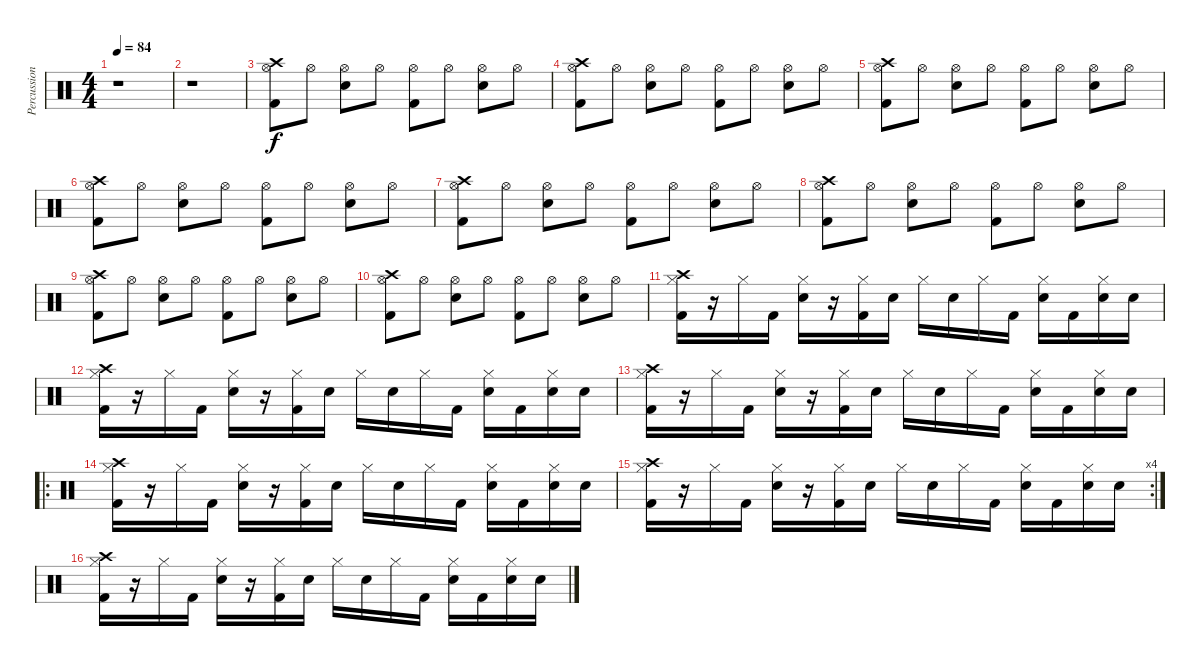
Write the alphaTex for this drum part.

\track ("Percussion" "Percussion") {instrument percussion}
\staff {score}
\articulation defaults
\ts (4 4)
\tempo 84
\clef neutral
\ks c
r.1{dy f} |
r.1 |
("Crash high (hit)" "Hi-Hat (open)" "Kick (hit) 2").8 "Hi-Hat (open)".8 ("Hi-Hat (open)" "Snare (hit) 2").8 "Hi-Hat (open)".8 ("Hi-Hat (open)" "Kick (hit) 2").8 "Hi-Hat (open)".8 ("Hi-Hat (open)" "Snare (hit) 2").8 "Hi-Hat (open)".8 |
("Crash high (hit)" "Hi-Hat (open)" "Kick (hit) 2").8 "Hi-Hat (open)".8 ("Hi-Hat (open)" "Snare (hit) 2").8 "Hi-Hat (open)".8 ("Hi-Hat (open)" "Kick (hit) 2").8 "Hi-Hat (open)".8 ("Hi-Hat (open)" "Snare (hit) 2").8 "Hi-Hat (open)".8 |
("Crash high (hit)" "Hi-Hat (open)" "Kick (hit) 2").8 "Hi-Hat (open)".8 ("Hi-Hat (open)" "Snare (hit) 2").8 "Hi-Hat (open)".8 ("Hi-Hat (open)" "Kick (hit) 2").8 "Hi-Hat (open)".8 ("Hi-Hat (open)" "Snare (hit) 2").8 "Hi-Hat (open)".8 |
("Crash high (hit)" "Hi-Hat (open)" "Kick (hit) 2").8 "Hi-Hat (open)".8 ("Hi-Hat (open)" "Snare (hit) 2").8 "Hi-Hat (open)".8 ("Hi-Hat (open)" "Kick (hit) 2").8 "Hi-Hat (open)".8 ("Hi-Hat (open)" "Snare (hit) 2").8 "Hi-Hat (open)".8 |
("Crash high (hit)" "Hi-Hat (open)" "Kick (hit) 2").8 "Hi-Hat (open)".8 ("Hi-Hat (open)" "Snare (hit) 2").8 "Hi-Hat (open)".8 ("Hi-Hat (open)" "Kick (hit) 2").8 "Hi-Hat (open)".8 ("Hi-Hat (open)" "Snare (hit) 2").8 "Hi-Hat (open)".8 |
("Crash high (hit)" "Hi-Hat (open)" "Kick (hit) 2").8 "Hi-Hat (open)".8 ("Hi-Hat (open)" "Snare (hit) 2").8 "Hi-Hat (open)".8 ("Hi-Hat (open)" "Kick (hit) 2").8 "Hi-Hat (open)".8 ("Hi-Hat (open)" "Snare (hit) 2").8 "Hi-Hat (open)".8 |
("Crash high (hit)" "Hi-Hat (open)" "Kick (hit) 2").8 "Hi-Hat (open)".8 ("Hi-Hat (open)" "Snare (hit) 2").8 "Hi-Hat (open)".8 ("Hi-Hat (open)" "Kick (hit) 2").8 "Hi-Hat (open)".8 ("Hi-Hat (open)" "Snare (hit) 2").8 "Hi-Hat (open)".8 |
("Crash high (hit)" "Hi-Hat (open)" "Kick (hit) 2").8 "Hi-Hat (open)".8 ("Hi-Hat (open)" "Snare (hit) 2").8 "Hi-Hat (open)".8 ("Hi-Hat (open)" "Kick (hit) 2").8 "Hi-Hat (open)".8 ("Hi-Hat (open)" "Snare (hit) 2").8 "Hi-Hat (open)".8 |
("Crash high (hit)" "Hi-Hat (closed)" "Kick (hit) 2").16 r.16 "Hi-Hat (closed)".16 "Kick (hit) 2".16 ("Hi-Hat (closed)" "Snare (hit) 2").16 r.16 ("Hi-Hat (closed)" "Kick (hit) 2").16 "Snare (hit) 2".16 "Hi-Hat (closed)".16 "Snare (hit) 2".16 "Hi-Hat (closed)".16 "Kick (hit) 2".16 ("Hi-Hat (closed)" "Snare (hit) 2").16 "Kick (hit) 2".16 ("Hi-Hat (closed)" "Snare (hit) 2").16 "Snare (hit) 2".16 |
("Crash high (hit)" "Hi-Hat (closed)" "Kick (hit) 2").16 r.16 "Hi-Hat (closed)".16 "Kick (hit) 2".16 ("Hi-Hat (closed)" "Snare (hit) 2").16 r.16 ("Hi-Hat (closed)" "Kick (hit) 2").16 "Snare (hit) 2".16 "Hi-Hat (closed)".16 "Snare (hit) 2".16 "Hi-Hat (closed)".16 "Kick (hit) 2".16 ("Hi-Hat (closed)" "Snare (hit) 2").16 "Kick (hit) 2".16 ("Hi-Hat (closed)" "Snare (hit) 2").16 "Snare (hit) 2".16 |
("Crash high (hit)" "Hi-Hat (closed)" "Kick (hit) 2").16 r.16 "Hi-Hat (closed)".16 "Kick (hit) 2".16 ("Hi-Hat (closed)" "Snare (hit) 2").16 r.16 ("Hi-Hat (closed)" "Kick (hit) 2").16 "Snare (hit) 2".16 "Hi-Hat (closed)".16 "Snare (hit) 2".16 "Hi-Hat (closed)".16 "Kick (hit) 2".16 ("Hi-Hat (closed)" "Snare (hit) 2").16 "Kick (hit) 2".16 ("Hi-Hat (closed)" "Snare (hit) 2").16 "Snare (hit) 2".16 |
\ro
("Crash high (hit)" "Hi-Hat (closed)" "Kick (hit) 2").16 r.16 "Hi-Hat (closed)".16 "Kick (hit) 2".16 ("Hi-Hat (closed)" "Snare (hit) 2").16 r.16 ("Hi-Hat (closed)" "Kick (hit) 2").16 "Snare (hit) 2".16 "Hi-Hat (closed)".16 "Snare (hit) 2".16 "Hi-Hat (closed)".16 "Kick (hit) 2".16 ("Hi-Hat (closed)" "Snare (hit) 2").16 "Kick (hit) 2".16 ("Hi-Hat (closed)" "Snare (hit) 2").16 "Snare (hit) 2".16 |
\rc 4
("Crash high (hit)" "Hi-Hat (closed)" "Kick (hit) 2").16 r.16 "Hi-Hat (closed)".16 "Kick (hit) 2".16 ("Hi-Hat (closed)" "Snare (hit) 2").16 r.16 ("Hi-Hat (closed)" "Kick (hit) 2").16 "Snare (hit) 2".16 "Hi-Hat (closed)".16 "Snare (hit) 2".16 "Hi-Hat (closed)".16 "Kick (hit) 2".16 ("Hi-Hat (closed)" "Snare (hit) 2").16 "Kick (hit) 2".16 ("Hi-Hat (closed)" "Snare (hit) 2").16 "Snare (hit) 2".16 |
("Crash high (hit)" "Hi-Hat (closed)" "Kick (hit) 2").16 r.16 "Hi-Hat (closed)".16 "Kick (hit) 2".16 ("Hi-Hat (closed)" "Snare (hit) 2").16 r.16 ("Hi-Hat (closed)" "Kick (hit) 2").16 "Snare (hit) 2".16 "Hi-Hat (closed)".16 "Snare (hit) 2".16 "Hi-Hat (closed)".16 "Kick (hit) 2".16 ("Hi-Hat (closed)" "Snare (hit) 2").16 "Kick (hit) 2".16 ("Hi-Hat (closed)" "Snare (hit) 2").16 "Snare (hit) 2".16
